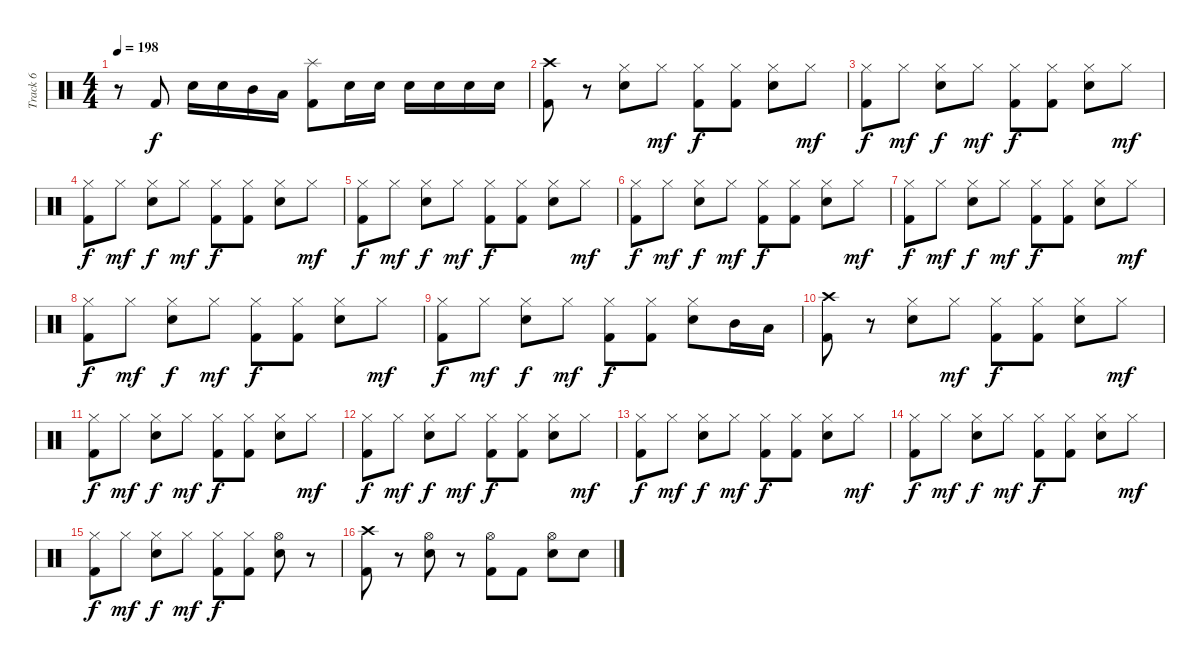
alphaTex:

\track ("Track 6" "Track 6") {instrument percussion}
\staff {score}
\articulation defaults
\ts (4 4)
\tempo 198
\clef neutral
\ks c
r.8{dy f} "Kick (hit) 2".8 "Electric Snare (hit)".16 "Electric Snare (hit)".16 "Mid Tom (hit)".16 "Low Tom (hit)".16 ("Splash (hit)" "Kick (hit) 2").8 "Electric Snare (hit)".16 "Electric Snare (hit)".16 "Electric Snare (hit)".16 "Electric Snare (hit)".16 "Electric Snare (hit)".16 "Electric Snare (hit)".16 |
("Crash high (hit)" "Kick (hit) 2").8 r.8 ("Hi-Hat (closed)" "Electric Snare (hit)").8 "Hi-Hat (closed)".8{dy mf} ("Hi-Hat (closed)" "Kick (hit) 2").8{dy f} ("Hi-Hat (closed)" "Kick (hit) 2").8 ("Hi-Hat (closed)" "Electric Snare (hit)").8 "Hi-Hat (closed)".8{dy mf} |
("Hi-Hat (closed)" "Kick (hit) 2").8{dy f} "Hi-Hat (closed)".8{dy mf} ("Hi-Hat (closed)" "Electric Snare (hit)").8{dy f} "Hi-Hat (closed)".8{dy mf} ("Hi-Hat (closed)" "Kick (hit) 2").8{dy f} ("Hi-Hat (closed)" "Kick (hit) 2").8 ("Hi-Hat (closed)" "Electric Snare (hit)").8 "Hi-Hat (closed)".8{dy mf} |
("Hi-Hat (closed)" "Kick (hit) 2").8{dy f} "Hi-Hat (closed)".8{dy mf} ("Hi-Hat (closed)" "Electric Snare (hit)").8{dy f} "Hi-Hat (closed)".8{dy mf} ("Hi-Hat (closed)" "Kick (hit) 2").8{dy f} ("Hi-Hat (closed)" "Kick (hit) 2").8 ("Hi-Hat (closed)" "Electric Snare (hit)").8 "Hi-Hat (closed)".8{dy mf} |
("Hi-Hat (closed)" "Kick (hit) 2").8{dy f} "Hi-Hat (closed)".8{dy mf} ("Hi-Hat (closed)" "Electric Snare (hit)").8{dy f} "Hi-Hat (closed)".8{dy mf} ("Hi-Hat (closed)" "Kick (hit) 2").8{dy f} ("Hi-Hat (closed)" "Kick (hit) 2").8 ("Hi-Hat (closed)" "Electric Snare (hit)").8 "Hi-Hat (closed)".8{dy mf} |
("Hi-Hat (closed)" "Kick (hit) 2").8{dy f} "Hi-Hat (closed)".8{dy mf} ("Hi-Hat (closed)" "Electric Snare (hit)").8{dy f} "Hi-Hat (closed)".8{dy mf} ("Hi-Hat (closed)" "Kick (hit) 2").8{dy f} ("Hi-Hat (closed)" "Kick (hit) 2").8 ("Hi-Hat (closed)" "Electric Snare (hit)").8 "Hi-Hat (closed)".8{dy mf} |
("Hi-Hat (closed)" "Kick (hit) 2").8{dy f} "Hi-Hat (closed)".8{dy mf} ("Hi-Hat (closed)" "Electric Snare (hit)").8{dy f} "Hi-Hat (closed)".8{dy mf} ("Hi-Hat (closed)" "Kick (hit) 2").8{dy f} ("Hi-Hat (closed)" "Kick (hit) 2").8 ("Hi-Hat (closed)" "Electric Snare (hit)").8 "Hi-Hat (closed)".8{dy mf} |
("Hi-Hat (closed)" "Kick (hit) 2").8{dy f} "Hi-Hat (closed)".8{dy mf} ("Hi-Hat (closed)" "Electric Snare (hit)").8{dy f} "Hi-Hat (closed)".8{dy mf} ("Hi-Hat (closed)" "Kick (hit) 2").8{dy f} ("Hi-Hat (closed)" "Kick (hit) 2").8 ("Hi-Hat (closed)" "Electric Snare (hit)").8 "Hi-Hat (closed)".8{dy mf} |
("Hi-Hat (closed)" "Kick (hit) 2").8{dy f} "Hi-Hat (closed)".8{dy mf} ("Hi-Hat (closed)" "Electric Snare (hit)").8{dy f} "Hi-Hat (closed)".8{dy mf} ("Hi-Hat (closed)" "Kick (hit) 2").8{dy f} ("Hi-Hat (closed)" "Kick (hit) 2").8 ("Hi-Hat (closed)" "Electric Snare (hit)").8 "Mid Tom (hit)".16 "Low Tom (hit)".16 |
("Crash high (hit)" "Kick (hit) 2").8 r.8 ("Hi-Hat (closed)" "Electric Snare (hit)").8 "Hi-Hat (closed)".8{dy mf} ("Hi-Hat (closed)" "Kick (hit) 2").8{dy f} ("Hi-Hat (closed)" "Kick (hit) 2").8 ("Hi-Hat (closed)" "Electric Snare (hit)").8 "Hi-Hat (closed)".8{dy mf} |
("Hi-Hat (closed)" "Kick (hit) 2").8{dy f} "Hi-Hat (closed)".8{dy mf} ("Hi-Hat (closed)" "Electric Snare (hit)").8{dy f} "Hi-Hat (closed)".8{dy mf} ("Hi-Hat (closed)" "Kick (hit) 2").8{dy f} ("Hi-Hat (closed)" "Kick (hit) 2").8 ("Hi-Hat (closed)" "Electric Snare (hit)").8 "Hi-Hat (closed)".8{dy mf} |
("Hi-Hat (closed)" "Kick (hit) 2").8{dy f} "Hi-Hat (closed)".8{dy mf} ("Hi-Hat (closed)" "Electric Snare (hit)").8{dy f} "Hi-Hat (closed)".8{dy mf} ("Hi-Hat (closed)" "Kick (hit) 2").8{dy f} ("Hi-Hat (closed)" "Kick (hit) 2").8 ("Hi-Hat (closed)" "Electric Snare (hit)").8 "Hi-Hat (closed)".8{dy mf} |
("Hi-Hat (closed)" "Kick (hit) 2").8{dy f} "Hi-Hat (closed)".8{dy mf} ("Hi-Hat (closed)" "Electric Snare (hit)").8{dy f} "Hi-Hat (closed)".8{dy mf} ("Hi-Hat (closed)" "Kick (hit) 2").8{dy f} ("Hi-Hat (closed)" "Kick (hit) 2").8 ("Hi-Hat (closed)" "Electric Snare (hit)").8 "Hi-Hat (closed)".8{dy mf} |
("Hi-Hat (closed)" "Kick (hit) 2").8{dy f} "Hi-Hat (closed)".8{dy mf} ("Hi-Hat (closed)" "Electric Snare (hit)").8{dy f} "Hi-Hat (closed)".8{dy mf} ("Hi-Hat (closed)" "Kick (hit) 2").8{dy f} ("Hi-Hat (closed)" "Kick (hit) 2").8 ("Hi-Hat (closed)" "Electric Snare (hit)").8 "Hi-Hat (closed)".8{dy mf} |
("Hi-Hat (closed)" "Kick (hit) 2").8{dy f} "Hi-Hat (closed)".8{dy mf} ("Hi-Hat (closed)" "Electric Snare (hit)").8{dy f} "Hi-Hat (closed)".8{dy mf} ("Hi-Hat (closed)" "Kick (hit) 2").8{dy f} ("Hi-Hat (closed)" "Kick (hit) 2").8 ("Hi-Hat (open)" "Electric Snare (hit)").8 r.8 |
("Crash high (hit)" "Kick (hit) 2").8 r.8 ("Hi-Hat (open)" "Electric Snare (hit)").8 r.8 ("Hi-Hat (open)" "Kick (hit) 2").8 "Kick (hit) 2".8 ("Hi-Hat (open)" "Electric Snare (hit)").8 "Electric Snare (hit)".8
